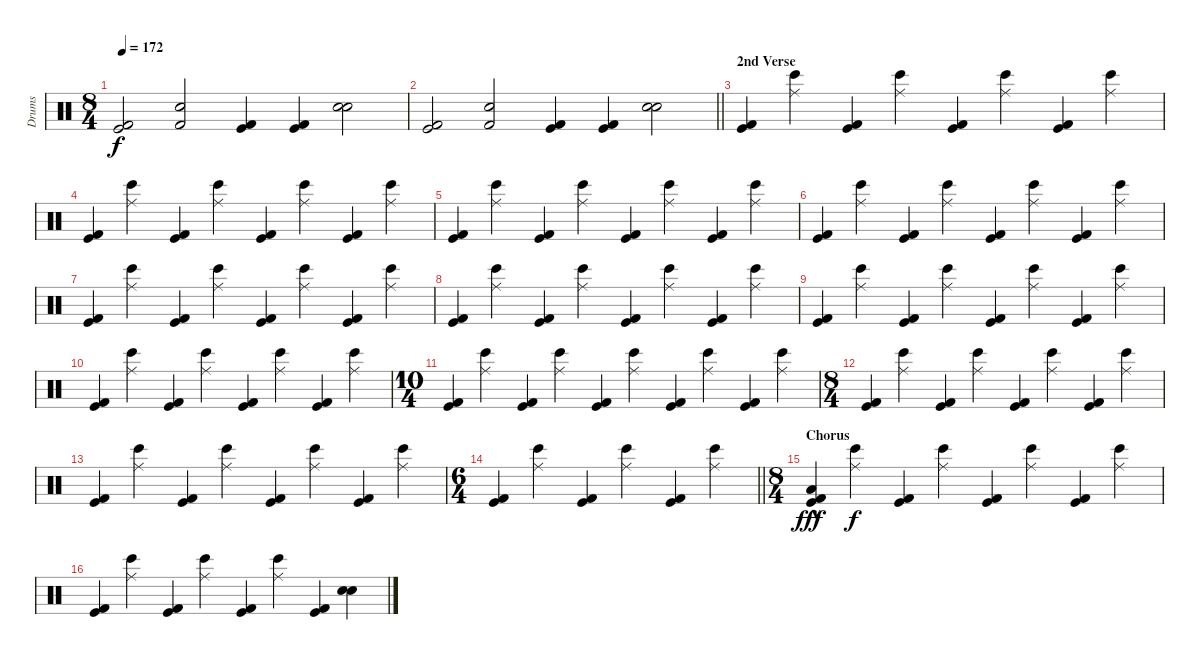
\track ("Drums" "Drums") {instrument percussion}
\staff {score}
\articulation defaults
\ts (8 4)
\tempo 172
\clef neutral
\ks c
("Kick (hit) 2" "Kick (hit)").2{dy f} ("Snare (hit) 2" "Kick (hit) 2").2 ("Kick (hit) 2" "Kick (hit)").4 ("Kick (hit) 2" "Kick (hit)").4 ("Snare (hit) 2" "Electric Snare (hit)").2 |
\barLineRight lightlight
("Kick (hit) 2" "Kick (hit)").2 ("Snare (hit) 2" "Kick (hit) 2").2 ("Kick (hit) 2" "Kick (hit)").4 ("Kick (hit) 2" "Kick (hit)").4 ("Snare (hit) 2" "Electric Snare (hit)").2 |
\section ("" "2nd Verse")
("Kick (hit) 2" "Kick (hit)").4 ("Ride (middle)" "Bongo High (hit)").4 ("Kick (hit) 2" "Kick (hit)").4 ("Ride (middle)" "Bongo High (hit)").4 ("Kick (hit) 2" "Kick (hit)").4 ("Ride (middle)" "Bongo High (hit)").4 ("Kick (hit) 2" "Kick (hit)").4 ("Ride (middle)" "Bongo High (hit)").4 |
("Kick (hit) 2" "Kick (hit)").4 ("Ride (middle)" "Bongo High (hit)").4 ("Kick (hit) 2" "Kick (hit)").4 ("Ride (middle)" "Bongo High (hit)").4 ("Kick (hit) 2" "Kick (hit)").4 ("Ride (middle)" "Bongo High (hit)").4 ("Kick (hit) 2" "Kick (hit)").4 ("Ride (middle)" "Bongo High (hit)").4 |
("Kick (hit) 2" "Kick (hit)").4 ("Ride (middle)" "Bongo High (hit)").4 ("Kick (hit) 2" "Kick (hit)").4 ("Ride (middle)" "Bongo High (hit)").4 ("Kick (hit) 2" "Kick (hit)").4 ("Ride (middle)" "Bongo High (hit)").4 ("Kick (hit) 2" "Kick (hit)").4 ("Ride (middle)" "Bongo High (hit)").4 |
("Kick (hit) 2" "Kick (hit)").4 ("Ride (middle)" "Bongo High (hit)").4 ("Kick (hit) 2" "Kick (hit)").4 ("Ride (middle)" "Bongo High (hit)").4 ("Kick (hit) 2" "Kick (hit)").4 ("Ride (middle)" "Bongo High (hit)").4 ("Kick (hit) 2" "Kick (hit)").4 ("Ride (middle)" "Bongo High (hit)").4 |
("Kick (hit) 2" "Kick (hit)").4 ("Ride (middle)" "Bongo High (hit)").4 ("Kick (hit) 2" "Kick (hit)").4 ("Ride (middle)" "Bongo High (hit)").4 ("Kick (hit) 2" "Kick (hit)").4 ("Ride (middle)" "Bongo High (hit)").4 ("Kick (hit) 2" "Kick (hit)").4 ("Ride (middle)" "Bongo High (hit)").4 |
("Kick (hit) 2" "Kick (hit)").4 ("Ride (middle)" "Bongo High (hit)").4 ("Kick (hit) 2" "Kick (hit)").4 ("Ride (middle)" "Bongo High (hit)").4 ("Kick (hit) 2" "Kick (hit)").4 ("Ride (middle)" "Bongo High (hit)").4 ("Kick (hit) 2" "Kick (hit)").4 ("Ride (middle)" "Bongo High (hit)").4 |
("Kick (hit) 2" "Kick (hit)").4 ("Ride (middle)" "Bongo High (hit)").4 ("Kick (hit) 2" "Kick (hit)").4 ("Ride (middle)" "Bongo High (hit)").4 ("Kick (hit) 2" "Kick (hit)").4 ("Ride (middle)" "Bongo High (hit)").4 ("Kick (hit) 2" "Kick (hit)").4 ("Ride (middle)" "Bongo High (hit)").4 |
("Kick (hit) 2" "Kick (hit)").4 ("Ride (middle)" "Bongo High (hit)").4 ("Kick (hit) 2" "Kick (hit)").4 ("Ride (middle)" "Bongo High (hit)").4 ("Kick (hit) 2" "Kick (hit)").4 ("Ride (middle)" "Bongo High (hit)").4 ("Kick (hit) 2" "Kick (hit)").4 ("Ride (middle)" "Bongo High (hit)").4 |
\ts (10 4)
("Kick (hit) 2" "Kick (hit)").4 ("Ride (middle)" "Bongo High (hit)").4 ("Kick (hit) 2" "Kick (hit)").4 ("Ride (middle)" "Bongo High (hit)").4 ("Kick (hit) 2" "Kick (hit)").4 ("Ride (middle)" "Bongo High (hit)").4 ("Kick (hit) 2" "Kick (hit)").4 ("Ride (middle)" "Bongo High (hit)").4 ("Kick (hit) 2" "Kick (hit)").4 ("Ride (middle)" "Bongo High (hit)").4 |
\ts (8 4)
("Kick (hit) 2" "Kick (hit)").4 ("Ride (middle)" "Bongo High (hit)").4 ("Kick (hit) 2" "Kick (hit)").4 ("Ride (middle)" "Bongo High (hit)").4 ("Kick (hit) 2" "Kick (hit)").4 ("Ride (middle)" "Bongo High (hit)").4 ("Kick (hit) 2" "Kick (hit)").4 ("Ride (middle)" "Bongo High (hit)").4 |
("Kick (hit) 2" "Kick (hit)").4 ("Ride (middle)" "Bongo High (hit)").4 ("Kick (hit) 2" "Kick (hit)").4 ("Ride (middle)" "Bongo High (hit)").4 ("Kick (hit) 2" "Kick (hit)").4 ("Ride (middle)" "Bongo High (hit)").4 ("Kick (hit) 2" "Kick (hit)").4 ("Ride (middle)" "Bongo High (hit)").4 |
\ts (6 4)
\barLineRight lightlight
("Kick (hit) 2" "Kick (hit)").4 ("Ride (middle)" "Bongo High (hit)").4 ("Kick (hit) 2" "Kick (hit)").4 ("Ride (middle)" "Bongo High (hit)").4 ("Kick (hit) 2" "Kick (hit)").4 ("Ride (middle)" "Bongo High (hit)").4 |
\ts (8 4)
\section ("" "Chorus")
("Kick (hit) 2"{hac} "Kick (hit)"{hac} "Low Floor Tom (hit)"{hac}).4{dy fff} ("Ride (middle)" "Bongo High (hit)").4{dy f} ("Kick (hit) 2" "Kick (hit)").4 ("Ride (middle)" "Bongo High (hit)").4 ("Kick (hit) 2" "Kick (hit)").4 ("Ride (middle)" "Bongo High (hit)").4 ("Kick (hit) 2" "Kick (hit)").4 ("Ride (middle)" "Bongo High (hit)").4 |
("Kick (hit) 2" "Kick (hit)").4 ("Ride (middle)" "Bongo High (hit)").4 ("Kick (hit) 2" "Kick (hit)").4 ("Ride (middle)" "Bongo High (hit)").4 ("Kick (hit) 2" "Kick (hit)").4 ("Ride (middle)" "Bongo High (hit)").4 ("Kick (hit) 2" "Kick (hit)").4 ("Snare (hit) 2" "Electric Snare (hit)").4
